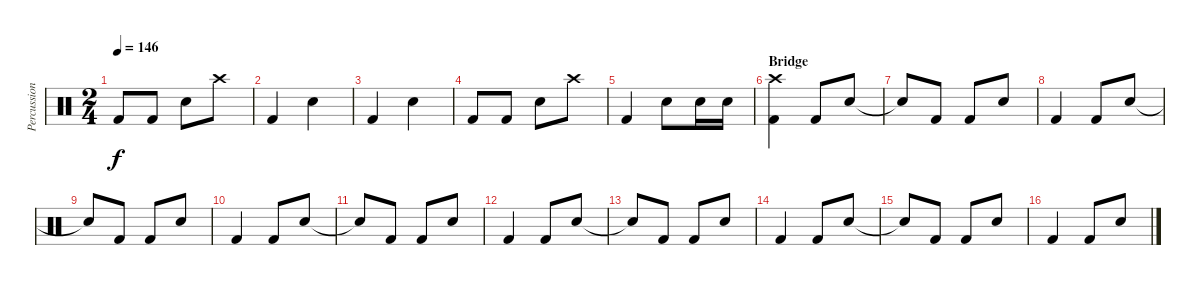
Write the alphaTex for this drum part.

\track ("Percussion" "Percussion") {instrument percussion}
\staff {score}
\articulation defaults
\ts (2 4)
\tempo 146
\clef neutral
\ks c "Kick (hit) 2".8{dy f} "Kick (hit) 2".8 "Electric Snare (hit)".8 "Crash high (hit)".8
|
"Kick (hit) 2".4 "Electric Snare (hit)".4 |
"Kick (hit) 2".4 "Electric Snare (hit)".4 |
"Kick (hit) 2".8 "Kick (hit) 2".8 "Electric Snare (hit)".8 "Crash high (hit)".8 |
"Kick (hit) 2".4 "Electric Snare (hit)".8 "Electric Snare (hit)".16 "Electric Snare (hit)".16 |
\section ("" "Bridge")
("Crash high (hit)" "Kick (hit) 2").4 "Kick (hit) 2".8 "Electric Snare (hit)".8 |
"Snare (hit)"{t}.8 "Kick (hit) 2".8 "Kick (hit) 2".8 "Electric Snare (hit)".8 |
"Kick (hit) 2".4 "Kick (hit) 2".8 "Electric Snare (hit)".8 |
"Snare (hit)"{t}.8 "Kick (hit) 2".8 "Kick (hit) 2".8 "Electric Snare (hit)".8 |
"Kick (hit) 2".4 "Kick (hit) 2".8 "Electric Snare (hit)".8 |
"Snare (hit)"{t}.8 "Kick (hit) 2".8 "Kick (hit) 2".8 "Electric Snare (hit)".8 |
"Kick (hit) 2".4 "Kick (hit) 2".8 "Electric Snare (hit)".8 |
"Snare (hit)"{t}.8 "Kick (hit) 2".8 "Kick (hit) 2".8 "Electric Snare (hit)".8 |
"Kick (hit) 2".4 "Kick (hit) 2".8 "Electric Snare (hit)".8 |
"Snare (hit)"{t}.8 "Kick (hit) 2".8 "Kick (hit) 2".8 "Electric Snare (hit)".8 |
"Kick (hit) 2".4 "Kick (hit) 2".8 "Electric Snare (hit)".8
